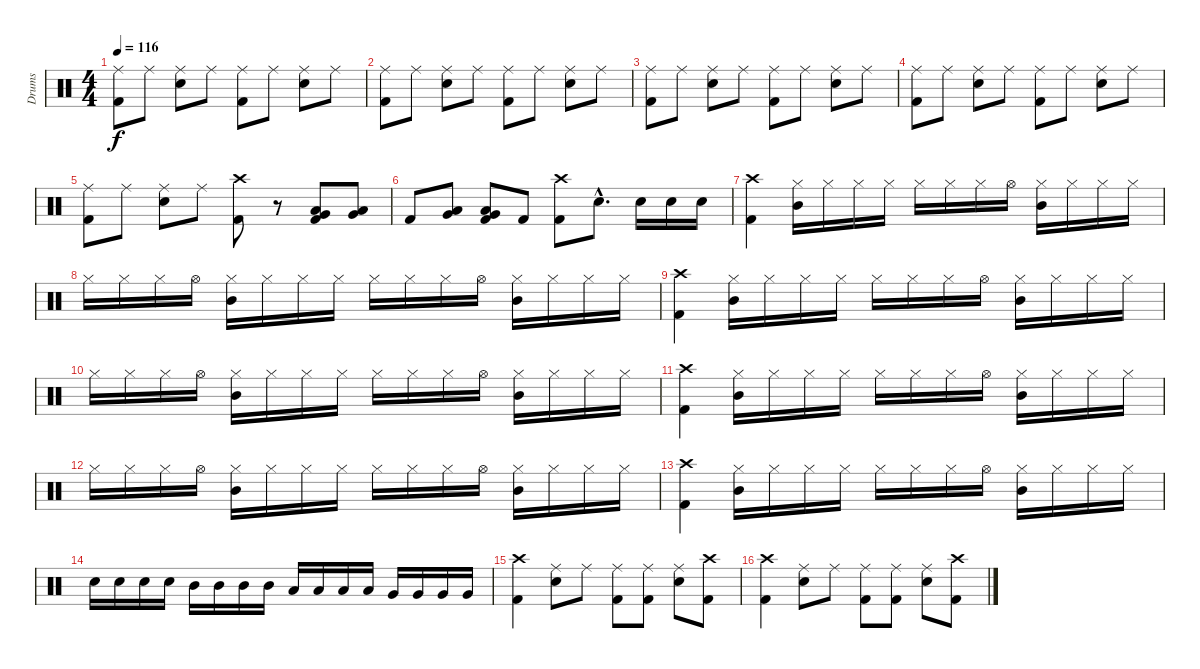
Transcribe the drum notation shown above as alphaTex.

\track ("Drums" "Drums") {instrument percussion}
\staff {score}
\articulation defaults
\ts (4 4)
\tempo 116
\clef neutral
\ks c
("Ride (middle)" "Kick (hit) 2").8{dy f} "Ride (middle)".8 ("Ride (middle)" "Snare (hit) 2").8 "Ride (middle)".8 ("Ride (middle)" "Kick (hit) 2").8 "Ride (middle)".8 ("Ride (middle)" "Snare (hit) 2").8 "Ride (middle)".8 |
("Ride (middle)" "Kick (hit) 2").8 "Ride (middle)".8 ("Ride (middle)" "Snare (hit) 2").8 "Ride (middle)".8 ("Ride (middle)" "Kick (hit) 2").8 "Ride (middle)".8 ("Ride (middle)" "Snare (hit) 2").8 "Ride (middle)".8 |
("Ride (middle)" "Kick (hit) 2").8 "Ride (middle)".8 ("Ride (middle)" "Snare (hit) 2").8 "Ride (middle)".8 ("Ride (middle)" "Kick (hit) 2").8 "Ride (middle)".8 ("Ride (middle)" "Snare (hit) 2").8 "Ride (middle)".8 |
("Ride (middle)" "Kick (hit) 2").8 "Ride (middle)".8 ("Ride (middle)" "Snare (hit) 2").8 "Ride (middle)".8 ("Ride (middle)" "Kick (hit) 2").8 "Ride (middle)".8 ("Ride (middle)" "Snare (hit) 2").8 "Ride (middle)".8 |
("Ride (middle)" "Kick (hit) 2").8 "Ride (middle)".8 ("Ride (middle)" "Snare (hit) 2").8 "Ride (middle)".8 ("Crash high (hit)" "Kick (hit) 2").8 r.8 ("Low Tom (hit)" "Very Low Tom (hit)" "Kick (hit) 2").8 ("Low Tom (hit)" "Very Low Tom (hit)").8 |
"Kick (hit) 2".8 ("Very Low Tom (hit)" "Low Tom (hit)").8 ("Low Tom (hit)" "Very Low Tom (hit)" "Kick (hit) 2").8 "Kick (hit) 2".8 ("Crash high (hit)" "Kick (hit) 2").8 "Snare (hit) 2"{hac}.8{d} "Snare (hit) 2".16 "Snare (hit) 2".16 "Snare (hit) 2".16 |
("Crash high (hit)" "Kick (hit) 2").4 ("Hi-Hat (closed)" "Mid Tom (hit)").16 "Hi-Hat (closed)".16 "Hi-Hat (closed)".16 "Hi-Hat (closed)".16 "Hi-Hat (closed)".16 "Hi-Hat (closed)".16 "Hi-Hat (closed)".16 "Hi-Hat (open)".16 ("Hi-Hat (closed)" "Mid Tom (hit)").16 "Hi-Hat (closed)".16 "Hi-Hat (closed)".16 "Hi-Hat (closed)".16 |
"Hi-Hat (closed)".16 "Hi-Hat (closed)".16 "Hi-Hat (closed)".16 "Hi-Hat (open)".16 ("Hi-Hat (closed)" "Mid Tom (hit)").16 "Hi-Hat (closed)".16 "Hi-Hat (closed)".16 "Hi-Hat (closed)".16 "Hi-Hat (closed)".16 "Hi-Hat (closed)".16 "Hi-Hat (closed)".16 "Hi-Hat (open)".16 ("Hi-Hat (closed)" "Mid Tom (hit)").16 "Hi-Hat (closed)".16 "Hi-Hat (closed)".16 "Hi-Hat (closed)".16 |
("Crash high (hit)" "Kick (hit) 2").4 ("Hi-Hat (closed)" "Mid Tom (hit)").16 "Hi-Hat (closed)".16 "Hi-Hat (closed)".16 "Hi-Hat (closed)".16 "Hi-Hat (closed)".16 "Hi-Hat (closed)".16 "Hi-Hat (closed)".16 "Hi-Hat (open)".16 ("Hi-Hat (closed)" "Mid Tom (hit)").16 "Hi-Hat (closed)".16 "Hi-Hat (closed)".16 "Hi-Hat (closed)".16 |
"Hi-Hat (closed)".16 "Hi-Hat (closed)".16 "Hi-Hat (closed)".16 "Hi-Hat (open)".16 ("Hi-Hat (closed)" "Mid Tom (hit)").16 "Hi-Hat (closed)".16 "Hi-Hat (closed)".16 "Hi-Hat (closed)".16 "Hi-Hat (closed)".16 "Hi-Hat (closed)".16 "Hi-Hat (closed)".16 "Hi-Hat (open)".16 ("Hi-Hat (closed)" "Mid Tom (hit)").16 "Hi-Hat (closed)".16 "Hi-Hat (closed)".16 "Hi-Hat (closed)".16 |
("Crash high (hit)" "Kick (hit) 2").4 ("Hi-Hat (closed)" "Mid Tom (hit)").16 "Hi-Hat (closed)".16 "Hi-Hat (closed)".16 "Hi-Hat (closed)".16 "Hi-Hat (closed)".16 "Hi-Hat (closed)".16 "Hi-Hat (closed)".16 "Hi-Hat (open)".16 ("Hi-Hat (closed)" "Mid Tom (hit)").16 "Hi-Hat (closed)".16 "Hi-Hat (closed)".16 "Hi-Hat (closed)".16 |
"Hi-Hat (closed)".16 "Hi-Hat (closed)".16 "Hi-Hat (closed)".16 "Hi-Hat (open)".16 ("Hi-Hat (closed)" "Mid Tom (hit)").16 "Hi-Hat (closed)".16 "Hi-Hat (closed)".16 "Hi-Hat (closed)".16 "Hi-Hat (closed)".16 "Hi-Hat (closed)".16 "Hi-Hat (closed)".16 "Hi-Hat (open)".16 ("Hi-Hat (closed)" "Mid Tom (hit)").16 "Hi-Hat (closed)".16 "Hi-Hat (closed)".16 "Hi-Hat (closed)".16 |
("Crash high (hit)" "Kick (hit) 2").4 ("Hi-Hat (closed)" "Mid Tom (hit)").16 "Hi-Hat (closed)".16 "Hi-Hat (closed)".16 "Hi-Hat (closed)".16 "Hi-Hat (closed)".16 "Hi-Hat (closed)".16 "Hi-Hat (closed)".16 "Hi-Hat (open)".16 ("Hi-Hat (closed)" "Mid Tom (hit)").16 "Hi-Hat (closed)".16 "Hi-Hat (closed)".16 "Hi-Hat (closed)".16 |
"Snare (hit) 2".16 "Snare (hit) 2".16 "Snare (hit) 2".16 "Snare (hit) 2".16 "Mid Tom (hit)".16 "Mid Tom (hit)".16 "Mid Tom (hit)".16 "Mid Tom (hit)".16 "Low Tom (hit)".16 "Low Tom (hit)".16 "Low Tom (hit)".16 "Low Tom (hit)".16 "Very Low Tom (hit)".16 "Very Low Tom (hit)".16 "Very Low Tom (hit)".16 "Very Low Tom (hit)".16 |
("Crash high (hit)" "Kick (hit) 2").4 ("Ride (middle)" "Snare (hit) 2").8 "Ride (middle)".8 ("Ride (middle)" "Kick (hit) 2").8 ("Ride (middle)" "Kick (hit) 2").8 ("Ride (middle)" "Snare (hit) 2").8 ("Crash high (hit)" "Kick (hit) 2").8 |
("Crash high (hit)" "Kick (hit) 2").4 ("Ride (middle)" "Snare (hit) 2").8 "Ride (middle)".8 ("Ride (middle)" "Kick (hit) 2").8 ("Ride (middle)" "Kick (hit) 2").8 ("Ride (middle)" "Snare (hit) 2").8 ("Crash high (hit)" "Kick (hit) 2").8
